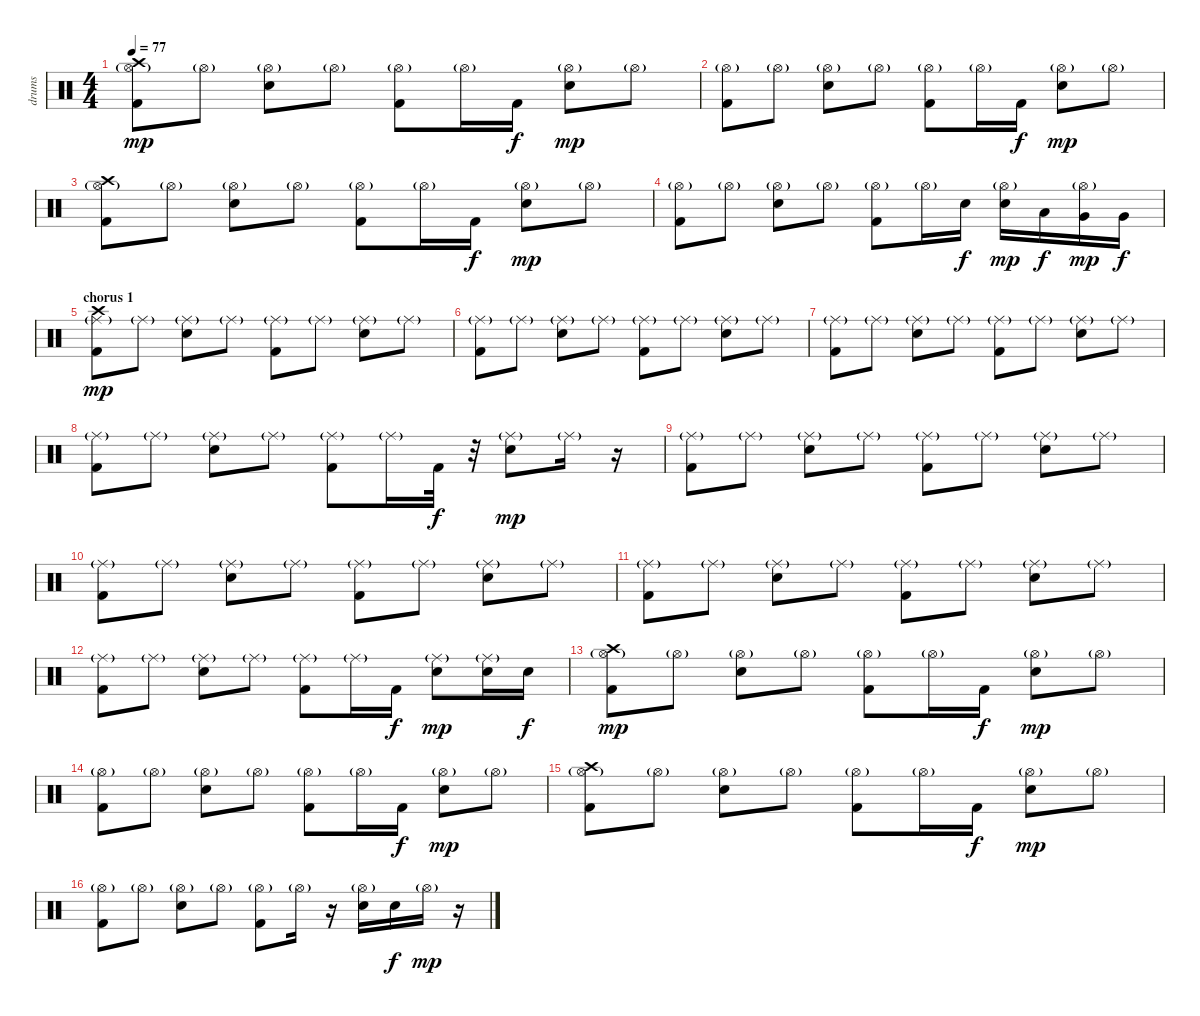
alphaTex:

\track ("drums" "drums") {instrument percussion}
\staff {score}
\articulation defaults
\ts (4 4)
\tempo 77
\clef neutral
\ks c
("Kick (hit) 2" "Hi-Hat (open)"{g} "Crash high (hit)").8{dy mp} "Hi-Hat (open)"{g}.8 ("Snare (hit) 2" "Hi-Hat (open)"{g}).8 "Hi-Hat (open)"{g}.8 ("Kick (hit) 2" "Hi-Hat (open)"{g}).8 "Hi-Hat (open)"{g}.16 "Kick (hit) 2".16{dy f} ("Snare (hit) 2" "Hi-Hat (open)"{g}).8{dy mp} "Hi-Hat (open)"{g}.8 |
("Kick (hit) 2" "Hi-Hat (open)"{g}).8 "Hi-Hat (open)"{g}.8 ("Snare (hit) 2" "Hi-Hat (open)"{g}).8 "Hi-Hat (open)"{g}.8 ("Kick (hit) 2" "Hi-Hat (open)"{g}).8 "Hi-Hat (open)"{g}.16 "Kick (hit) 2".16{dy f} ("Snare (hit) 2" "Hi-Hat (open)"{g}).8{dy mp} "Hi-Hat (open)"{g}.8 |
("Kick (hit) 2" "Hi-Hat (open)"{g} "Crash high (hit)").8 "Hi-Hat (open)"{g}.8 ("Snare (hit) 2" "Hi-Hat (open)"{g}).8 "Hi-Hat (open)"{g}.8 ("Kick (hit) 2" "Hi-Hat (open)"{g}).8 "Hi-Hat (open)"{g}.16 "Kick (hit) 2".16{dy f} ("Snare (hit) 2" "Hi-Hat (open)"{g}).8{dy mp} "Hi-Hat (open)"{g}.8 |
("Kick (hit) 2" "Hi-Hat (open)"{g}).8 "Hi-Hat (open)"{g}.8 ("Snare (hit) 2" "Hi-Hat (open)"{g}).8 "Hi-Hat (open)"{g}.8 ("Kick (hit) 2" "Hi-Hat (open)"{g}).8 "Hi-Hat (open)"{g}.16 "Snare (hit) 2"{tr (38 16)}.16{dy f} ("Snare (hit) 2" "Hi-Hat (open)"{g}).16{dy mp} "Low Tom (hit)".16{dy f} ("Very Low Tom (hit)" "Hi-Hat (open)"{g}).16{dy mp} "Very Low Tom (hit)".16{dy f} |
\section ("" "chorus 1")
("Kick (hit) 2" "Ride (middle)"{g} "Crash high (hit)").8{dy mp volume 14} "Ride (middle)"{g}.8 ("Snare (hit) 2" "Ride (middle)"{g}).8 "Ride (middle)"{g}.8 ("Kick (hit) 2" "Ride (middle)"{g}).8 "Ride (middle)"{g}.8 ("Snare (hit) 2" "Ride (middle)"{g}).8 "Ride (middle)"{g}.8 |
("Kick (hit) 2" "Ride (middle)"{g}).8 "Ride (middle)"{g}.8 ("Snare (hit) 2" "Ride (middle)"{g}).8 "Ride (middle)"{g}.8 ("Kick (hit) 2" "Ride (middle)"{g}).8 "Ride (middle)"{g}.8 ("Snare (hit) 2" "Ride (middle)"{g}).8 "Ride (middle)"{g}.8 |
("Kick (hit) 2" "Ride (middle)"{g}).8 "Ride (middle)"{g}.8 ("Snare (hit) 2" "Ride (middle)"{g}).8 "Ride (middle)"{g}.8 ("Kick (hit) 2" "Ride (middle)"{g}).8 "Ride (middle)"{g}.8 ("Snare (hit) 2" "Ride (middle)"{g}).8 "Ride (middle)"{g}.8 |
("Kick (hit) 2" "Ride (middle)"{g}).8 "Ride (middle)"{g}.8 ("Snare (hit) 2" "Ride (middle)"{g}).8 "Ride (middle)"{g}.8 ("Kick (hit) 2" "Ride (middle)"{g}).8 "Ride (middle)"{g}.16 "Kick (hit) 2".32{dy f} r.32 ("Snare (hit) 2" "Ride (middle)"{g}).8{dy mp} "Ride (middle)"{g}.16 r.16 |
("Kick (hit) 2" "Ride (middle)"{g}).8 "Ride (middle)"{g}.8 ("Snare (hit) 2" "Ride (middle)"{g}).8 "Ride (middle)"{g}.8 ("Kick (hit) 2" "Ride (middle)"{g}).8 "Ride (middle)"{g}.8 ("Snare (hit) 2" "Ride (middle)"{g}).8 "Ride (middle)"{g}.8 |
("Kick (hit) 2" "Ride (middle)"{g}).8 "Ride (middle)"{g}.8 ("Snare (hit) 2" "Ride (middle)"{g}).8 "Ride (middle)"{g}.8 ("Kick (hit) 2" "Ride (middle)"{g}).8 "Ride (middle)"{g}.8 ("Snare (hit) 2" "Ride (middle)"{g}).8 "Ride (middle)"{g}.8 |
("Kick (hit) 2" "Ride (middle)"{g}).8 "Ride (middle)"{g}.8 ("Snare (hit) 2" "Ride (middle)"{g}).8 "Ride (middle)"{g}.8 ("Kick (hit) 2" "Ride (middle)"{g}).8 "Ride (middle)"{g}.8 ("Snare (hit) 2" "Ride (middle)"{g}).8 "Ride (middle)"{g}.8 |
("Kick (hit) 2" "Ride (middle)"{g}).8 "Ride (middle)"{g}.8 ("Snare (hit) 2" "Ride (middle)"{g}).8 "Ride (middle)"{g}.8 ("Kick (hit) 2" "Ride (middle)"{g}).8 "Ride (middle)"{g}.16 "Kick (hit) 2".16{dy f} ("Snare (hit) 2" "Ride (middle)"{g}).8{dy mp} ("Snare (hit) 2"{tr (38 16)} "Ride (middle)"{g}).16 "Snare (hit) 2".16{dy f} |
("Kick (hit) 2" "Hi-Hat (open)"{g} "Crash high (hit)").8{dy mp volume 12} "Hi-Hat (open)"{g}.8 ("Snare (hit) 2" "Hi-Hat (open)"{g}).8 "Hi-Hat (open)"{g}.8 ("Kick (hit) 2" "Hi-Hat (open)"{g}).8 "Hi-Hat (open)"{g}.16 "Kick (hit) 2".16{dy f} ("Snare (hit) 2" "Hi-Hat (open)"{g}).8{dy mp} "Hi-Hat (open)"{g}.8 |
("Kick (hit) 2" "Hi-Hat (open)"{g}).8 "Hi-Hat (open)"{g}.8 ("Snare (hit) 2" "Hi-Hat (open)"{g}).8 "Hi-Hat (open)"{g}.8 ("Kick (hit) 2" "Hi-Hat (open)"{g}).8 "Hi-Hat (open)"{g}.16 "Kick (hit) 2".16{dy f} ("Snare (hit) 2" "Hi-Hat (open)"{g}).8{dy mp} "Hi-Hat (open)"{g}.8 |
("Kick (hit) 2" "Hi-Hat (open)"{g} "Crash high (hit)").8 "Hi-Hat (open)"{g}.8 ("Snare (hit) 2" "Hi-Hat (open)"{g}).8 "Hi-Hat (open)"{g}.8 ("Kick (hit) 2" "Hi-Hat (open)"{g}).8 "Hi-Hat (open)"{g}.16 "Kick (hit) 2".16{dy f} ("Snare (hit) 2" "Hi-Hat (open)"{g}).8{dy mp} "Hi-Hat (open)"{g}.8 |
("Kick (hit) 2" "Hi-Hat (open)"{g}).8 "Hi-Hat (open)"{g}.8 ("Snare (hit) 2" "Hi-Hat (open)"{g}).8 "Hi-Hat (open)"{g}.8 ("Kick (hit) 2" "Hi-Hat (open)"{g}).8 "Hi-Hat (open)"{g}.16 r.16 ("Snare (hit) 2" "Hi-Hat (open)"{g}).16 "Snare (hit) 2".16{dy f} "Hi-Hat (open)"{g}.16{dy mp} r.16
